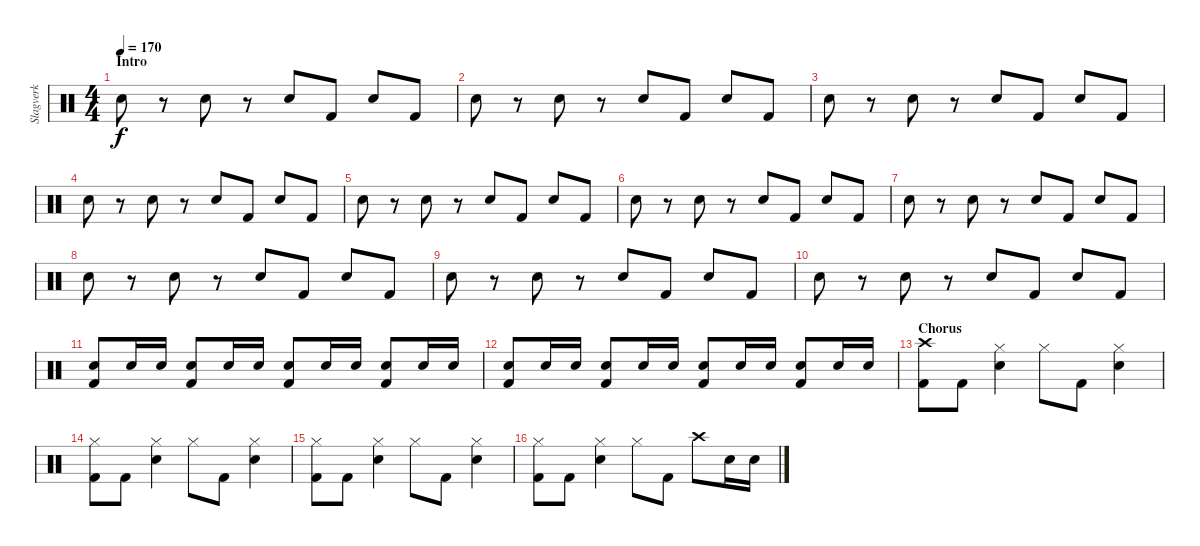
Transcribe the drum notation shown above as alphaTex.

\track ("Slagverk" "Slagverk") {instrument percussion}
\staff {score}
\articulation defaults
\ts (4 4)
\section ("" "Intro")
\tempo 170
\clef neutral
\ks c "Snare (hit) 2".8{dy f}
r.8 "Snare (hit) 2".8 r.8 "Snare (hit) 2".8 "Kick (hit) 2".8 "Snare (hit) 2".8 "Kick (hit) 2".8 |
"Snare (hit) 2".8 r.8 "Snare (hit) 2".8 r.8 "Snare (hit) 2".8 "Kick (hit) 2".8 "Snare (hit) 2".8 "Kick (hit) 2".8 |
"Snare (hit) 2".8 r.8 "Snare (hit) 2".8 r.8 "Snare (hit) 2".8 "Kick (hit) 2".8 "Snare (hit) 2".8 "Kick (hit) 2".8 |
"Snare (hit) 2".8 r.8 "Snare (hit) 2".8 r.8 "Snare (hit) 2".8 "Kick (hit) 2".8 "Snare (hit) 2".8 "Kick (hit) 2".8 |
"Snare (hit) 2".8 r.8 "Snare (hit) 2".8 r.8 "Snare (hit) 2".8 "Kick (hit) 2".8 "Snare (hit) 2".8 "Kick (hit) 2".8 |
"Snare (hit) 2".8 r.8 "Snare (hit) 2".8 r.8 "Snare (hit) 2".8 "Kick (hit) 2".8 "Snare (hit) 2".8 "Kick (hit) 2".8 |
"Snare (hit) 2".8 r.8 "Snare (hit) 2".8 r.8 "Snare (hit) 2".8 "Kick (hit) 2".8 "Snare (hit) 2".8 "Kick (hit) 2".8 |
"Snare (hit) 2".8 r.8 "Snare (hit) 2".8 r.8 "Snare (hit) 2".8 "Kick (hit) 2".8 "Snare (hit) 2".8 "Kick (hit) 2".8 |
"Snare (hit) 2".8 r.8 "Snare (hit) 2".8 r.8 "Snare (hit) 2".8 "Kick (hit) 2".8 "Snare (hit) 2".8 "Kick (hit) 2".8 |
"Snare (hit) 2".8 r.8 "Snare (hit) 2".8 r.8 "Snare (hit) 2".8 "Kick (hit) 2".8 "Snare (hit) 2".8 "Kick (hit) 2".8 |
("Kick (hit) 2" "Snare (hit) 2").8 "Snare (hit) 2".16 "Snare (hit) 2".16 ("Kick (hit) 2" "Snare (hit) 2").8 "Snare (hit) 2".16 "Snare (hit) 2".16 ("Kick (hit) 2" "Snare (hit) 2").8 "Snare (hit) 2".16 "Snare (hit) 2".16 ("Kick (hit) 2" "Snare (hit) 2").8 "Snare (hit) 2".16 "Snare (hit) 2".16 |
("Kick (hit) 2" "Snare (hit) 2").8 "Snare (hit) 2".16 "Snare (hit) 2".16 ("Kick (hit) 2" "Snare (hit) 2").8 "Snare (hit) 2".16 "Snare (hit) 2".16 ("Kick (hit) 2" "Snare (hit) 2").8 "Snare (hit) 2".16 "Snare (hit) 2".16 ("Kick (hit) 2" "Snare (hit) 2").8 "Snare (hit) 2".16 "Snare (hit) 2".16 |
\section ("" "Chorus")
("Kick (hit) 2" "Crash high (hit)").8 "Kick (hit) 2".8 ("Hi-Hat (closed)" "Snare (hit) 2").4 "Hi-Hat (closed)".8 "Kick (hit) 2".8 ("Hi-Hat (closed)" "Snare (hit) 2").4 |
("Kick (hit) 2" "Hi-Hat (closed)").8 "Kick (hit) 2".8 ("Hi-Hat (closed)" "Snare (hit) 2").4 "Hi-Hat (closed)".8 "Kick (hit) 2".8 ("Hi-Hat (closed)" "Snare (hit) 2").4 |
("Kick (hit) 2" "Hi-Hat (closed)").8 "Kick (hit) 2".8 ("Hi-Hat (closed)" "Snare (hit) 2").4 "Hi-Hat (closed)".8 "Kick (hit) 2".8 ("Hi-Hat (closed)" "Snare (hit) 2").4 |
("Kick (hit) 2" "Hi-Hat (closed)").8 "Kick (hit) 2".8 ("Hi-Hat (closed)" "Snare (hit) 2").4 "Hi-Hat (closed)".8 "Kick (hit) 2".8 "Crash high (hit)".8 "Snare (hit) 2".16 "Snare (hit) 2".16
